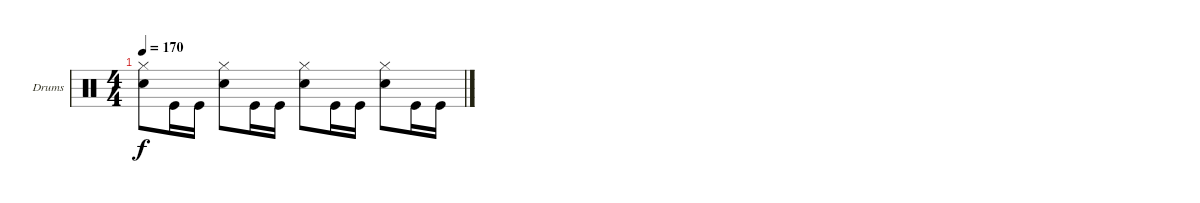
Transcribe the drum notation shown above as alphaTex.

\bracketExtendMode groupsimilarinstruments
\firstSystemTrackNameOrientation horizontal
\otherSystemsTrackNameOrientation horizontal
\track ("Drumkit" "Drums") {instrument percussion}
\staff {score}
\articulation defaults
\ts (4 4)
\tempo 170
\clef neutral
\ks c
("Hi-Hat (closed)" "Snare (hit) 2").8{dy f} "Kick (hit)".16 "Kick (hit)".16 ("Hi-Hat (closed)" "Snare (hit) 2").8 "Kick (hit)".16 "Kick (hit)".16 ("Hi-Hat (closed)" "Snare (hit) 2").8 "Kick (hit)".16 "Kick (hit)".16 ("Hi-Hat (closed)" "Snare (hit) 2").8 "Kick (hit)".16 "Kick (hit)".16
